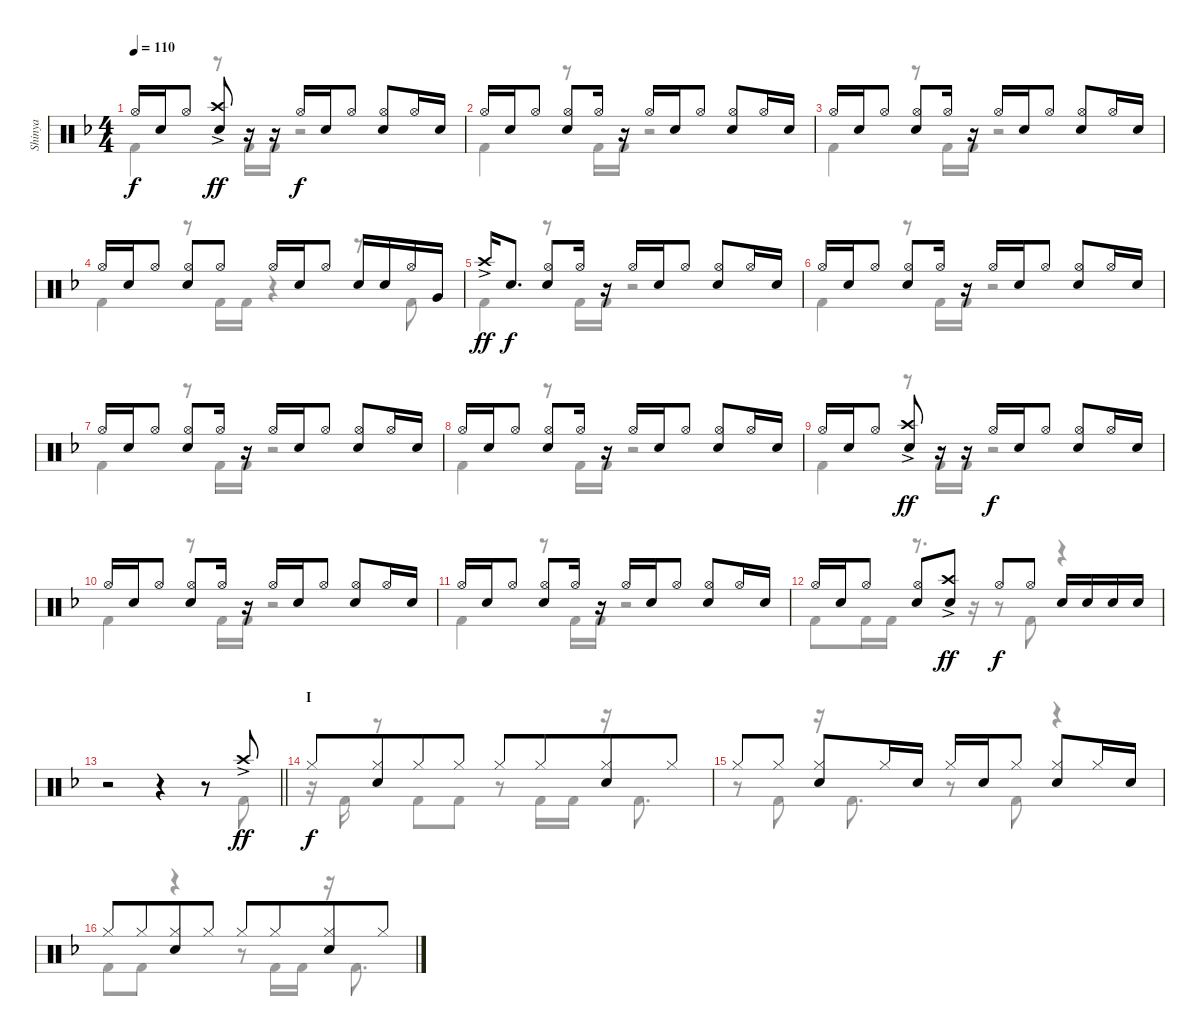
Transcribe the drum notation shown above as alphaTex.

\track ("Shinya" "Shinya") {instrument percussion}
\staff {score}
\articulation defaults
\voice
\ts (4 4)
\tempo 110
\clef neutral
\ks dminor "Hi-Hat (open)".16{dy f} "Snare (hit) 2".16 "Hi-Hat (open)".8
("Crash high (hit)"{ac} "Snare (hit) 2").8{dy ff} r.16 r.16 "Hi-Hat (open)".16{dy f} "Snare (hit) 2".16 "Hi-Hat (open)".8 ("Hi-Hat (open)" "Snare (hit) 2").8 "Hi-Hat (open)".16 "Snare (hit) 2".16 |
"Hi-Hat (open)".16 "Snare (hit) 2".16 "Hi-Hat (open)".8 ("Hi-Hat (open)" "Snare (hit) 2").8 "Hi-Hat (open)".16 r.16 "Hi-Hat (open)".16 "Snare (hit) 2".16 "Hi-Hat (open)".8 ("Hi-Hat (open)" "Snare (hit) 2").8 "Hi-Hat (open)".16 "Snare (hit) 2".16 |
"Hi-Hat (open)".16 "Snare (hit) 2".16 "Hi-Hat (open)".8 ("Hi-Hat (open)" "Snare (hit) 2").8 "Hi-Hat (open)".16 r.16 "Hi-Hat (open)".16 "Snare (hit) 2".16 "Hi-Hat (open)".8 ("Hi-Hat (open)" "Snare (hit) 2").8 "Hi-Hat (open)".16 "Snare (hit) 2".16 |
"Hi-Hat (open)".16 "Snare (hit) 2".16 "Hi-Hat (open)".8 ("Hi-Hat (open)" "Snare (hit) 2").8 "Hi-Hat (open)".8 "Hi-Hat (open)".16 "Snare (hit) 2".16 "Hi-Hat (open)".8 "Snare (hit) 2".16 "Snare (hit) 2".16 "Hi-Hat (open)".16 "Very Low Tom (hit)".16 |
"Crash high (hit)"{ac}.16{dy ff} "Snare (hit) 2".8{d dy f} ("Hi-Hat (open)" "Snare (hit) 2").8 "Hi-Hat (open)".16 r.16 "Hi-Hat (open)".16 "Snare (hit) 2".16 "Hi-Hat (open)".8 ("Hi-Hat (open)" "Snare (hit) 2").8 "Hi-Hat (open)".16 "Snare (hit) 2".16 |
"Hi-Hat (open)".16 "Snare (hit) 2".16 "Hi-Hat (open)".8 ("Hi-Hat (open)" "Snare (hit) 2").8 "Hi-Hat (open)".16 r.16 "Hi-Hat (open)".16 "Snare (hit) 2".16 "Hi-Hat (open)".8 ("Hi-Hat (open)" "Snare (hit) 2").8 "Hi-Hat (open)".16 "Snare (hit) 2".16 |
"Hi-Hat (open)".16 "Snare (hit) 2".16 "Hi-Hat (open)".8 ("Hi-Hat (open)" "Snare (hit) 2").8 "Hi-Hat (open)".16 r.16 "Hi-Hat (open)".16 "Snare (hit) 2".16 "Hi-Hat (open)".8 ("Hi-Hat (open)" "Snare (hit) 2").8 "Hi-Hat (open)".16 "Snare (hit) 2".16 |
"Hi-Hat (open)".16 "Snare (hit) 2".16 "Hi-Hat (open)".8 ("Hi-Hat (open)" "Snare (hit) 2").8 "Hi-Hat (open)".16 r.16 "Hi-Hat (open)".16 "Snare (hit) 2".16 "Hi-Hat (open)".8 ("Hi-Hat (open)" "Snare (hit) 2").8 "Hi-Hat (open)".16 "Snare (hit) 2".16 |
"Hi-Hat (open)".16 "Snare (hit) 2".16 "Hi-Hat (open)".8 ("Crash high (hit)"{ac} "Snare (hit) 2").8{dy ff} r.16 r.16 "Hi-Hat (open)".16{dy f} "Snare (hit) 2".16 "Hi-Hat (open)".8 ("Hi-Hat (open)" "Snare (hit) 2").8 "Hi-Hat (open)".16 "Snare (hit) 2".16 |
"Hi-Hat (open)".16 "Snare (hit) 2".16 "Hi-Hat (open)".8 ("Hi-Hat (open)" "Snare (hit) 2").8 "Hi-Hat (open)".16 r.16 "Hi-Hat (open)".16 "Snare (hit) 2".16 "Hi-Hat (open)".8 ("Hi-Hat (open)" "Snare (hit) 2").8 "Hi-Hat (open)".16 "Snare (hit) 2".16 |
"Hi-Hat (open)".16 "Snare (hit) 2".16 "Hi-Hat (open)".8 ("Hi-Hat (open)" "Snare (hit) 2").8 "Hi-Hat (open)".16 r.16 "Hi-Hat (open)".16 "Snare (hit) 2".16 "Hi-Hat (open)".8 ("Hi-Hat (open)" "Snare (hit) 2").8 "Hi-Hat (open)".16 "Snare (hit) 2".16 |
"Hi-Hat (open)".16 "Snare (hit) 2".16 "Hi-Hat (open)".8 ("Hi-Hat (open)" "Snare (hit) 2").8 ("Crash high (hit)"{ac} "Snare (hit) 2").8{dy ff} "Hi-Hat (open)".8{dy f} "Hi-Hat (open)".8 "Snare (hit) 2".16 "Snare (hit) 2".16 "Snare (hit) 2".16 "Snare (hit) 2".16 |
\barLineRight lightlight
r.2 r.4 r.8 "Crash high (hit)"{ac}.8{dy ff} |
\section ("" "I")
"Hi-Hat (closed)".8{dy f} ("Hi-Hat (closed)" "Snare (hit) 2").8{beam merge} "Hi-Hat (closed)".8 "Hi-Hat (closed)".8 "Hi-Hat (closed)".8 "Hi-Hat (closed)".8{beam merge} ("Hi-Hat (closed)" "Snare (hit) 2").8 "Hi-Hat (closed)".8 |
"Hi-Hat (closed)".8 "Hi-Hat (closed)".8 ("Hi-Hat (closed)" "Snare (hit) 2").8 "Hi-Hat (closed)".16 "Snare (hit) 2".16 "Hi-Hat (closed)".16 "Snare (hit) 2".16 "Hi-Hat (closed)".8 ("Hi-Hat (closed)" "Snare (hit) 2").8 "Hi-Hat (closed)".16 "Snare (hit) 2".16 |
"Hi-Hat (closed)".8 "Hi-Hat (closed)".8{beam merge} ("Hi-Hat (closed)" "Snare (hit) 2").8 "Hi-Hat (closed)".8 "Hi-Hat (closed)".8 "Hi-Hat (closed)".8{beam merge} ("Hi-Hat (closed)" "Snare (hit) 2").8 "Hi-Hat (closed)".8
\voice
\clef neutral
\ottava regular
\simile none
\ks dminor "Kick (hit) 2".4{dy f}
r.8 "Kick (hit) 2".16 "Kick (hit) 2".16 r.2 |
"Kick (hit) 2".4 r.8 "Kick (hit) 2".16 "Kick (hit) 2".16 r.2 |
"Kick (hit) 2".4 r.8 "Kick (hit) 2".16 "Kick (hit) 2".16 r.2 |
"Kick (hit) 2".4 r.8 "Kick (hit) 2".16 "Kick (hit) 2".16 r.4 r.8 "Kick (hit) 2".8 |
"Kick (hit) 2".4 r.8 "Kick (hit) 2".16 "Kick (hit) 2".16 r.2 |
"Kick (hit) 2".4 r.8 "Kick (hit) 2".16 "Kick (hit) 2".16 r.2 |
"Kick (hit) 2".4 r.8 "Kick (hit) 2".16 "Kick (hit) 2".16 r.2 |
"Kick (hit) 2".4 r.8 "Kick (hit) 2".16 "Kick (hit) 2".16 r.2 |
"Kick (hit) 2".4 r.8 "Kick (hit) 2".16 "Kick (hit) 2".16 r.2 |
"Kick (hit) 2".4 r.8 "Kick (hit) 2".16 "Kick (hit) 2".16 r.2 |
"Kick (hit) 2".4 r.8 "Kick (hit) 2".16 "Kick (hit) 2".16 r.2 |
"Kick (hit) 2".8 "Kick (hit) 2".16 "Kick (hit) 2".16 r.8{d} r.16 r.8 "Kick (hit) 2".8 r.4 |
\barLineRight lightlight
r.2 r.4 r.8 "Kick (hit) 2".8 |
r.16 "Kick (hit) 2".16 r.8 "Kick (hit) 2".8 "Kick (hit) 2".8 r.8 "Kick (hit) 2".16 "Kick (hit) 2".16 r.16 "Kick (hit) 2".8{d} |
r.8 "Kick (hit) 2".8 r.16 "Kick (hit) 2".8{d} r.8 "Kick (hit) 2".8 r.4 |
"Kick (hit) 2".8 "Kick (hit) 2".8 r.4 r.8 "Kick (hit) 2".16 "Kick (hit) 2".16 r.16 "Kick (hit) 2".8{d}
